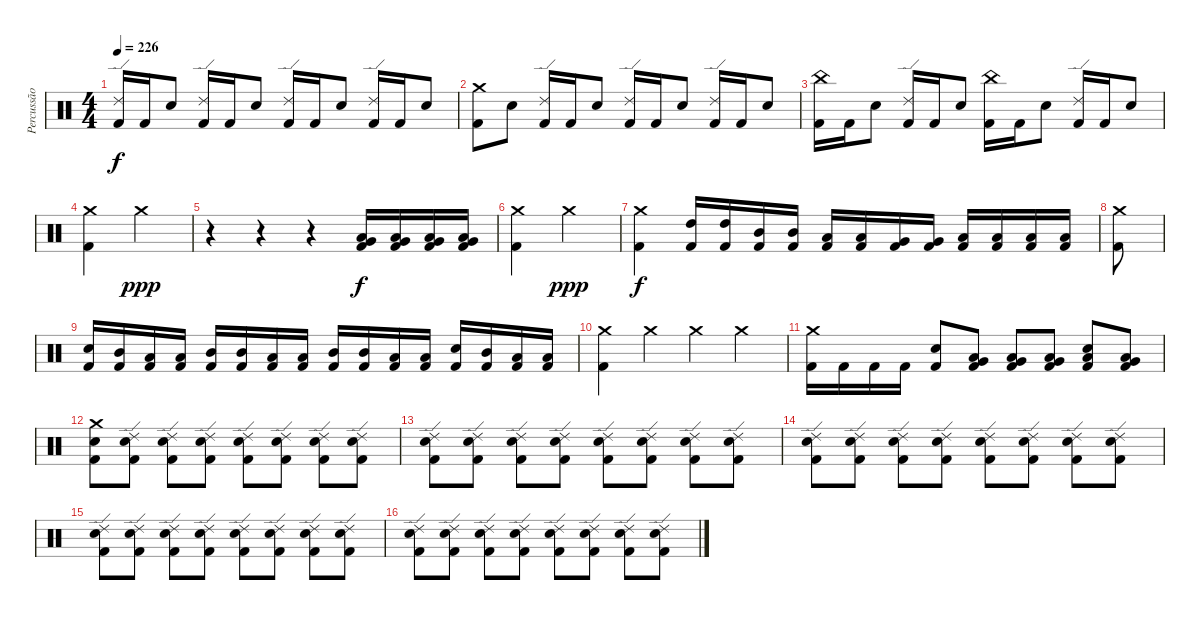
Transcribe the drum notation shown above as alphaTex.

\track ("Percussão" "Percussão") {instrument percussion}
\staff {score}
\articulation defaults
\ts (4 4)
\tempo 226
\clef neutral
\ks c
("Ride (edge) 2" "Kick (hit) 2").16{dy f} "Kick (hit) 2".16 "Electric Snare (hit)".8 ("Ride (edge) 2" "Kick (hit) 2").16 "Kick (hit) 2".16 "Electric Snare (hit)".8 ("Ride (edge) 2" "Kick (hit) 2").16 "Kick (hit) 2".16 "Electric Snare (hit)".8 ("Ride (edge) 2" "Kick (hit) 2").16 "Kick (hit) 2".16 "Electric Snare (hit)".8 |
("Crash medium (hit)" "Kick (hit) 2").8 "Electric Snare (hit)".8 ("Ride (edge) 2" "Kick (hit) 2").16 "Kick (hit) 2".16 "Electric Snare (hit)".8 ("Ride (edge) 2" "Kick (hit) 2").16 "Kick (hit) 2".16 "Electric Snare (hit)".8 ("Ride (edge) 2" "Kick (hit) 2").16 "Kick (hit) 2".16 "Electric Snare (hit)".8 |
("China (hit)" "Kick (hit) 2").16 "Kick (hit) 2".16 "Electric Snare (hit)".8 ("Ride (edge) 2" "Kick (hit) 2").16 "Kick (hit) 2".16 "Electric Snare (hit)".8 ("China (hit)" "Kick (hit) 2").16 "Kick (hit) 2".16 "Electric Snare (hit)".8 ("Ride (edge) 2" "Kick (hit) 2").16 "Kick (hit) 2".16 "Electric Snare (hit)".8 |
("Crash medium (hit)" "Kick (hit) 2").4 "Crash medium (hit)".4{dy ppp} |
r.4 r.4 r.4 ("Very Low Tom (hit)" "Low Floor Tom (hit)" "Kick (hit) 2").16{dy f} ("Very Low Tom (hit)" "Low Floor Tom (hit)" "Kick (hit) 2").16 ("Very Low Tom (hit)" "Low Floor Tom (hit)" "Kick (hit) 2").16 ("Very Low Tom (hit)" "Low Floor Tom (hit)" "Kick (hit) 2").16 |
("Crash medium (hit)" "Kick (hit) 2").4 "Crash medium (hit)".4{dy ppp} |
("Crash medium (hit)" "Kick (hit) 2").4{dy f} ("High Tom (hit)" "Kick (hit) 2").16 ("High Tom (hit)" "Kick (hit) 2").16 ("Mid Tom (hit)" "Kick (hit) 2").16 ("Mid Tom (hit)" "Kick (hit) 2").16 ("Low Tom (hit)" "Kick (hit) 2").16 ("Low Tom (hit)" "Kick (hit) 2").16 ("Very Low Tom (hit)" "Kick (hit) 2").16 ("Very Low Tom (hit)" "Kick (hit) 2").16 ("Low Tom (hit)" "Kick (hit) 2").16 ("Low Tom (hit)" "Kick (hit) 2").16 ("Low Tom (hit)" "Kick (hit) 2").16 ("Low Tom (hit)" "Kick (hit) 2").16 |
("Crash medium (hit)" "Kick (hit) 2").8 |
("Electric Snare (hit)" "Kick (hit) 2").16 ("Mid Tom (hit)" "Kick (hit) 2").16 ("Low Tom (hit)" "Kick (hit) 2").16 ("Low Tom (hit)" "Kick (hit) 2").16 ("Mid Tom (hit)" "Kick (hit) 2").16 ("Mid Tom (hit)" "Kick (hit) 2").16 ("Low Tom (hit)" "Kick (hit) 2").16 ("Low Tom (hit)" "Kick (hit) 2").16 ("Mid Tom (hit)" "Kick (hit) 2").16 ("Mid Tom (hit)" "Kick (hit) 2").16 ("Low Tom (hit)" "Kick (hit) 2").16 ("Low Tom (hit)" "Kick (hit) 2").16 ("Electric Snare (hit)" "Kick (hit) 2").16 ("Mid Tom (hit)" "Kick (hit) 2").16 ("Low Tom (hit)" "Kick (hit) 2").16 ("Low Tom (hit)" "Kick (hit) 2").16 |
("Crash medium (hit)" "Kick (hit) 2").4 "Crash medium (hit)".4 "Crash medium (hit)".4 "Crash medium (hit)".4 |
("Crash medium (hit)" "Kick (hit) 2").16 "Kick (hit) 2".16 "Kick (hit) 2".16 "Kick (hit) 2".16 ("Electric Snare (hit)" "Kick (hit) 2").8 ("Very Low Tom (hit)" "Low Tom (hit)" "Kick (hit) 2").8 ("Low Tom (hit)" "Very Low Tom (hit)" "Kick (hit) 2").8 ("Low Tom (hit)" "Very Low Tom (hit)" "Kick (hit) 2").8 ("Low Tom (hit)" "Snare (hit)" "Kick (hit) 2").8 ("Low Tom (hit)" "Very Low Tom (hit)" "Kick (hit) 2").8 |
("Crash medium (hit)" "Electric Snare (hit)" "Kick (hit) 2").8 ("Ride (edge) 2" "Electric Snare (hit)" "Kick (hit) 2").8 ("Ride (edge) 2" "Electric Snare (hit)" "Kick (hit) 2").8 ("Ride (edge) 2" "Electric Snare (hit)" "Kick (hit) 2").8 ("Ride (edge) 2" "Electric Snare (hit)" "Kick (hit) 2").8 ("Ride (edge) 2" "Electric Snare (hit)" "Kick (hit) 2").8 ("Ride (edge) 2" "Electric Snare (hit)" "Kick (hit) 2").8 ("Ride (edge) 2" "Electric Snare (hit)" "Kick (hit) 2").8 |
("Ride (edge) 2" "Electric Snare (hit)" "Kick (hit) 2").8 ("Ride (edge) 2" "Electric Snare (hit)" "Kick (hit) 2").8 ("Ride (edge) 2" "Electric Snare (hit)" "Kick (hit) 2").8 ("Ride (edge) 2" "Electric Snare (hit)" "Kick (hit) 2").8 ("Ride (edge) 2" "Electric Snare (hit)" "Kick (hit) 2").8 ("Ride (edge) 2" "Electric Snare (hit)" "Kick (hit) 2").8 ("Ride (edge) 2" "Electric Snare (hit)" "Kick (hit) 2").8 ("Ride (edge) 2" "Electric Snare (hit)" "Kick (hit) 2").8 |
("Ride (edge) 2" "Electric Snare (hit)" "Kick (hit) 2").8 ("Ride (edge) 2" "Electric Snare (hit)" "Kick (hit) 2").8 ("Ride (edge) 2" "Electric Snare (hit)" "Kick (hit) 2").8 ("Ride (edge) 2" "Electric Snare (hit)" "Kick (hit) 2").8 ("Ride (edge) 2" "Electric Snare (hit)" "Kick (hit) 2").8 ("Ride (edge) 2" "Electric Snare (hit)" "Kick (hit) 2").8 ("Ride (edge) 2" "Electric Snare (hit)" "Kick (hit) 2").8 ("Ride (edge) 2" "Electric Snare (hit)" "Kick (hit) 2").8 |
("Ride (edge) 2" "Electric Snare (hit)" "Kick (hit) 2").8 ("Ride (edge) 2" "Electric Snare (hit)" "Kick (hit) 2").8 ("Ride (edge) 2" "Electric Snare (hit)" "Kick (hit) 2").8 ("Ride (edge) 2" "Electric Snare (hit)" "Kick (hit) 2").8 ("Ride (edge) 2" "Electric Snare (hit)" "Kick (hit) 2").8 ("Ride (edge) 2" "Electric Snare (hit)" "Kick (hit) 2").8 ("Ride (edge) 2" "Electric Snare (hit)" "Kick (hit) 2").8 ("Ride (edge) 2" "Electric Snare (hit)" "Kick (hit) 2").8 |
("Ride (edge) 2" "Electric Snare (hit)" "Kick (hit) 2").8 ("Ride (edge) 2" "Electric Snare (hit)" "Kick (hit) 2").8 ("Ride (edge) 2" "Electric Snare (hit)" "Kick (hit) 2").8 ("Ride (edge) 2" "Electric Snare (hit)" "Kick (hit) 2").8 ("Ride (edge) 2" "Electric Snare (hit)" "Kick (hit) 2").8 ("Ride (edge) 2" "Electric Snare (hit)" "Kick (hit) 2").8 ("Ride (edge) 2" "Electric Snare (hit)" "Kick (hit) 2").8 ("Ride (edge) 2" "Electric Snare (hit)" "Kick (hit) 2").8
